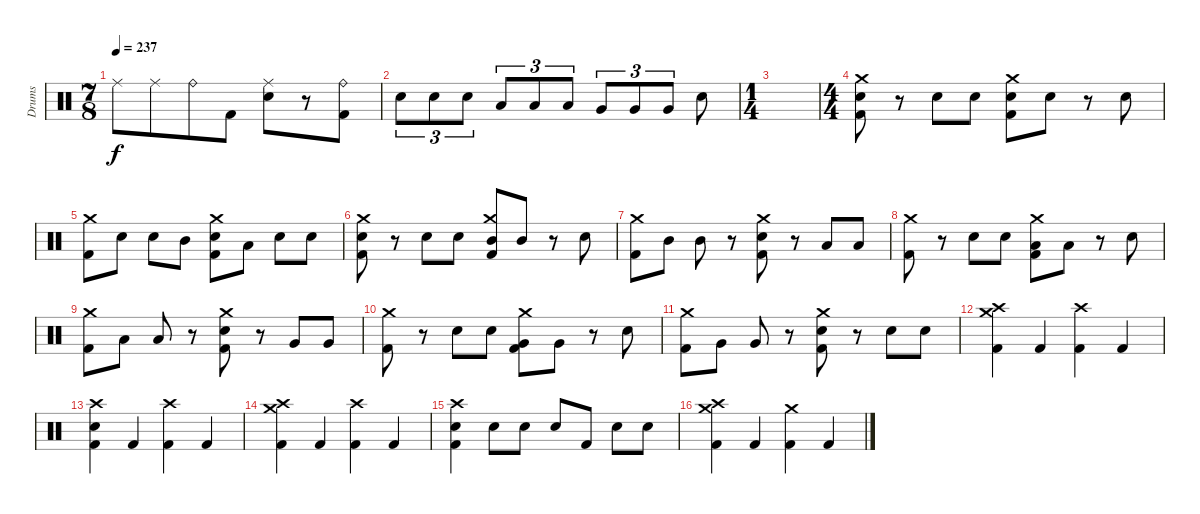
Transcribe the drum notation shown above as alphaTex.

\track ("Drums" "Drums") {instrument percussion}
\staff {score}
\articulation defaults
\ts (7 8)
\tempo 237
\clef neutral
\ks c "Ride (middle)".8{dy f} "Ride (middle)".8 "Ride (bell)".8 "Kick (hit) 2".8
("Ride (middle)" "Electric Snare (hit)").8 r.8 ("Ride (bell)" "Kick (hit) 2").8 |
"Electric Snare (hit)".8{tu (3 2)} "Electric Snare (hit)".8{tu (3 2)} "Electric Snare (hit)".8{tu (3 2)} "Low Tom (hit)".8{tu (3 2)} "Low Tom (hit)".8{tu (3 2)} "Low Tom (hit)".8{tu (3 2)} "Very Low Tom (hit)".8{tu (3 2)} "Very Low Tom (hit)".8{tu (3 2)} "Very Low Tom (hit)".8{tu (3 2)} "Electric Snare (hit)".8 |
\ts (1 4)
|
\ts (4 4)
("Crash medium (hit)" "Electric Snare (hit)" "Kick (hit) 2").8 r.8 "Electric Snare (hit)".8 "Electric Snare (hit)".8 ("Crash medium (hit)" "Electric Snare (hit)" "Kick (hit) 2").8 "Electric Snare (hit)".8 r.8 "Electric Snare (hit)".8 |
("Crash medium (hit)" "Kick (hit) 2").8 "Electric Snare (hit)".8 "Electric Snare (hit)".8 "Mid Tom (hit)".8 ("Crash medium (hit)" "Electric Snare (hit)" "Kick (hit) 2").8 "Low Tom (hit)".8 "Electric Snare (hit)".8 "Electric Snare (hit)".8 |
("Crash medium (hit)" "Electric Snare (hit)" "Kick (hit) 2").8 r.8 "Electric Snare (hit)".8 "Electric Snare (hit)".8 ("Crash medium (hit)" "Mid Tom (hit)" "Kick (hit) 2").8 "Mid Tom (hit)".8 r.8 "Electric Snare (hit)".8 |
("Crash medium (hit)" "Kick (hit) 2").8 "Mid Tom (hit)".8 "Mid Tom (hit)".8 r.8 ("Crash medium (hit)" "Electric Snare (hit)" "Kick (hit) 2").8 r.8 "Low Tom (hit)".8 "Low Tom (hit)".8 |
("Crash medium (hit)" "Kick (hit) 2").8 r.8 "Electric Snare (hit)".8 "Electric Snare (hit)".8 ("Crash medium (hit)" "Low Tom (hit)" "Kick (hit) 2").8 "Low Tom (hit)".8 r.8 "Electric Snare (hit)".8 |
("Crash medium (hit)" "Kick (hit) 2").8 "Low Tom (hit)".8 "Low Tom (hit)".8 r.8 ("Crash medium (hit)" "Electric Snare (hit)" "Kick (hit) 2").8 r.8 "Very Low Tom (hit)".8 "Very Low Tom (hit)".8 |
("Crash medium (hit)" "Kick (hit) 2").8 r.8 "Electric Snare (hit)".8 "Electric Snare (hit)".8 ("Crash medium (hit)" "Very Low Tom (hit)" "Kick (hit) 2").8 "Very Low Tom (hit)".8 r.8 "Electric Snare (hit)".8 |
("Crash medium (hit)" "Kick (hit) 2").8 "Very Low Tom (hit)".8 "Very Low Tom (hit)".8 r.8 ("Crash medium (hit)" "Electric Snare (hit)" "Kick (hit) 2").8 r.8 "Electric Snare (hit)".8 "Electric Snare (hit)".8 |
("Crash medium (hit)" "Crash high (hit)" "Kick (hit) 2").4 "Kick (hit) 2".4 ("Crash high (hit)" "Kick (hit) 2").4 "Kick (hit) 2".4 |
("Crash high (hit)" "Electric Snare (hit)" "Kick (hit) 2").4 "Kick (hit) 2".4 ("Crash high (hit)" "Kick (hit) 2").4 "Kick (hit) 2".4 |
("Crash medium (hit)" "Crash high (hit)" "Kick (hit) 2").4 "Kick (hit) 2".4 ("Crash high (hit)" "Kick (hit) 2").4 "Kick (hit) 2".4 |
("Crash high (hit)" "Electric Snare (hit)" "Kick (hit) 2").4 "Electric Snare (hit)".8 "Electric Snare (hit)".8 "Electric Snare (hit)".8 "Kick (hit) 2".8 "Electric Snare (hit)".8 "Electric Snare (hit)".8 |
("Crash medium (hit)" "Crash high (hit)" "Kick (hit) 2").4 "Kick (hit) 2".4 ("Crash medium (hit)" "Kick (hit) 2").4 "Kick (hit) 2".4
